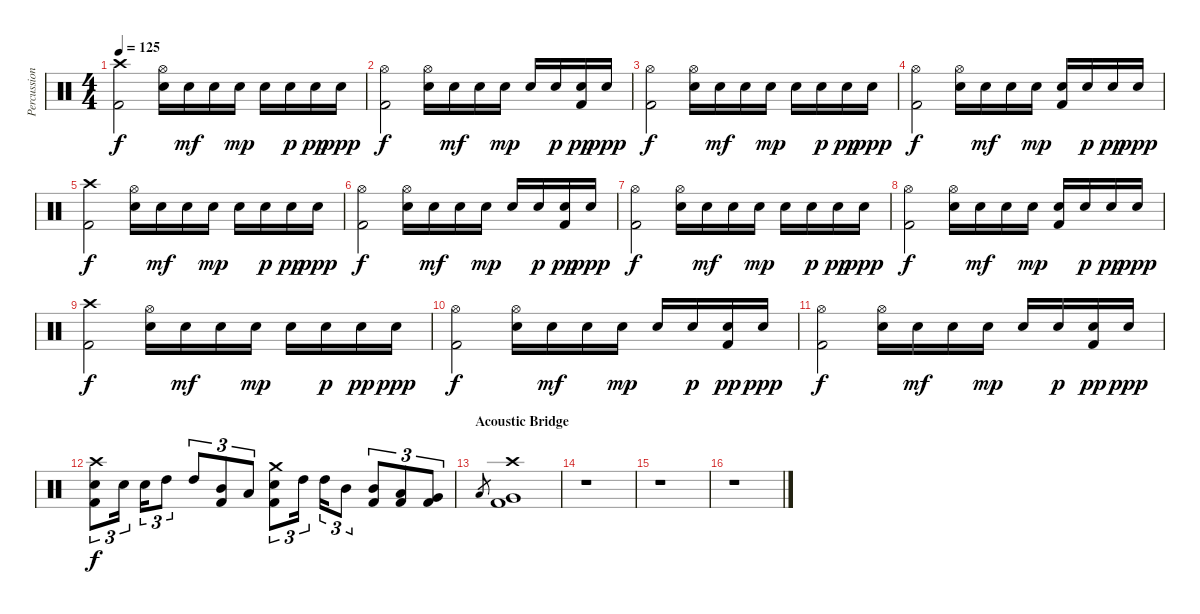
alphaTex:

\track ("Percussion" "Percussion") {instrument percussion}
\staff {score}
\articulation defaults
\ts (4 4)
\tempo 125
\clef neutral
\ks c
("Crash high (hit)" "Kick (hit) 2").2{dy f} ("Hi-Hat (open)" "Electric Snare (hit)").16 "Electric Snare (hit)".16{dy mf} "Electric Snare (hit)".16 "Electric Snare (hit)".16{dy mp} "Electric Snare (hit)".16 "Electric Snare (hit)".16{dy p} "Electric Snare (hit)".16{dy pp} "Electric Snare (hit)".16{dy ppp} |
("Hi-Hat (open)" "Kick (hit) 2").2{dy f} ("Hi-Hat (open)" "Electric Snare (hit)").16 "Electric Snare (hit)".16{dy mf} "Electric Snare (hit)".16 "Electric Snare (hit)".16{dy mp} "Electric Snare (hit)".16 "Electric Snare (hit)".16{dy p} ("Electric Snare (hit)" "Kick (hit) 2").16{dy pp} "Electric Snare (hit)".16{dy ppp} |
("Hi-Hat (open)" "Kick (hit) 2").2{dy f} ("Hi-Hat (open)" "Electric Snare (hit)").16 "Electric Snare (hit)".16{dy mf} "Electric Snare (hit)".16 "Electric Snare (hit)".16{dy mp} "Electric Snare (hit)".16 "Electric Snare (hit)".16{dy p} "Electric Snare (hit)".16{dy pp} "Electric Snare (hit)".16{dy ppp} |
("Hi-Hat (open)" "Kick (hit) 2").2{dy f} ("Hi-Hat (open)" "Electric Snare (hit)").16 "Electric Snare (hit)".16{dy mf} "Electric Snare (hit)".16 "Electric Snare (hit)".16{dy mp} ("Electric Snare (hit)" "Kick (hit) 2").16 "Electric Snare (hit)".16{dy p} "Electric Snare (hit)".16{dy pp} "Electric Snare (hit)".16{dy ppp} |
("Crash high (hit)" "Kick (hit) 2").2{dy f} ("Hi-Hat (open)" "Electric Snare (hit)").16 "Electric Snare (hit)".16{dy mf} "Electric Snare (hit)".16 "Electric Snare (hit)".16{dy mp} "Electric Snare (hit)".16 "Electric Snare (hit)".16{dy p} "Electric Snare (hit)".16{dy pp} "Electric Snare (hit)".16{dy ppp} |
("Hi-Hat (open)" "Kick (hit) 2").2{dy f} ("Hi-Hat (open)" "Electric Snare (hit)").16 "Electric Snare (hit)".16{dy mf} "Electric Snare (hit)".16 "Electric Snare (hit)".16{dy mp} "Electric Snare (hit)".16 "Electric Snare (hit)".16{dy p} ("Electric Snare (hit)" "Kick (hit) 2").16{dy pp} "Electric Snare (hit)".16{dy ppp} |
("Hi-Hat (open)" "Kick (hit) 2").2{dy f} ("Hi-Hat (open)" "Electric Snare (hit)").16 "Electric Snare (hit)".16{dy mf} "Electric Snare (hit)".16 "Electric Snare (hit)".16{dy mp} "Electric Snare (hit)".16 "Electric Snare (hit)".16{dy p} "Electric Snare (hit)".16{dy pp} "Electric Snare (hit)".16{dy ppp} |
("Hi-Hat (open)" "Kick (hit) 2").2{dy f} ("Hi-Hat (open)" "Electric Snare (hit)").16 "Electric Snare (hit)".16{dy mf} "Electric Snare (hit)".16 "Electric Snare (hit)".16{dy mp} ("Electric Snare (hit)" "Kick (hit) 2").16 "Electric Snare (hit)".16{dy p} "Electric Snare (hit)".16{dy pp} "Electric Snare (hit)".16{dy ppp} |
("Crash high (hit)" "Kick (hit) 2").2{dy f} ("Hi-Hat (open)" "Electric Snare (hit)").16 "Electric Snare (hit)".16{dy mf} "Electric Snare (hit)".16 "Electric Snare (hit)".16{dy mp} "Electric Snare (hit)".16 "Electric Snare (hit)".16{dy p} "Electric Snare (hit)".16{dy pp} "Electric Snare (hit)".16{dy ppp} |
("Hi-Hat (open)" "Kick (hit) 2").2{dy f} ("Hi-Hat (open)" "Electric Snare (hit)").16 "Electric Snare (hit)".16{dy mf} "Electric Snare (hit)".16 "Electric Snare (hit)".16{dy mp} "Electric Snare (hit)".16 "Electric Snare (hit)".16{dy p} ("Electric Snare (hit)" "Kick (hit) 2").16{dy pp} "Electric Snare (hit)".16{dy ppp} |
("Hi-Hat (open)" "Kick (hit) 2").2{dy f} ("Hi-Hat (open)" "Electric Snare (hit)").16 "Electric Snare (hit)".16{dy mf} "Electric Snare (hit)".16 "Electric Snare (hit)".16{dy mp} "Electric Snare (hit)".16 "Electric Snare (hit)".16{dy p} ("Electric Snare (hit)" "Kick (hit) 2").16{dy pp} "Electric Snare (hit)".16{dy ppp} |
("Crash high (hit)" "Electric Snare (hit)" "Kick (hit) 2").8{tu (3 2) dy f} "Electric Snare (hit)".16{tu (3 2)} "Electric Snare (hit)".16{tu (3 2)} "High Tom (hit)".8{tu (3 2)} "High Tom (hit)".8{tu (3 2)} ("Mid Tom (hit)" "Kick (hit) 2").8{tu (3 2)} "Low Tom (hit)".8{tu (3 2)} ("Crash medium (hit)" "Electric Snare (hit)" "Kick (hit) 2").8{tu (3 2)} "High Tom (hit)".16{tu (3 2)} "High Tom (hit)".16{tu (3 2)} "Mid Tom (hit)".8{tu (3 2)} ("Mid Tom (hit)" "Kick (hit) 2").8{tu (3 2)} ("Low Tom (hit)" "Kick (hit) 2").8{tu (3 2)} ("Very Low Tom (hit)" "Kick (hit) 2").8{tu (3 2)} |
\section ("" "Acoustic Bridge")
"Low Floor Tom (hit)".8{gr} ("Crash high (hit)" "Very Low Tom (hit)" "Kick (hit) 2").1 |
r.1 |
r.1 |
r.1
